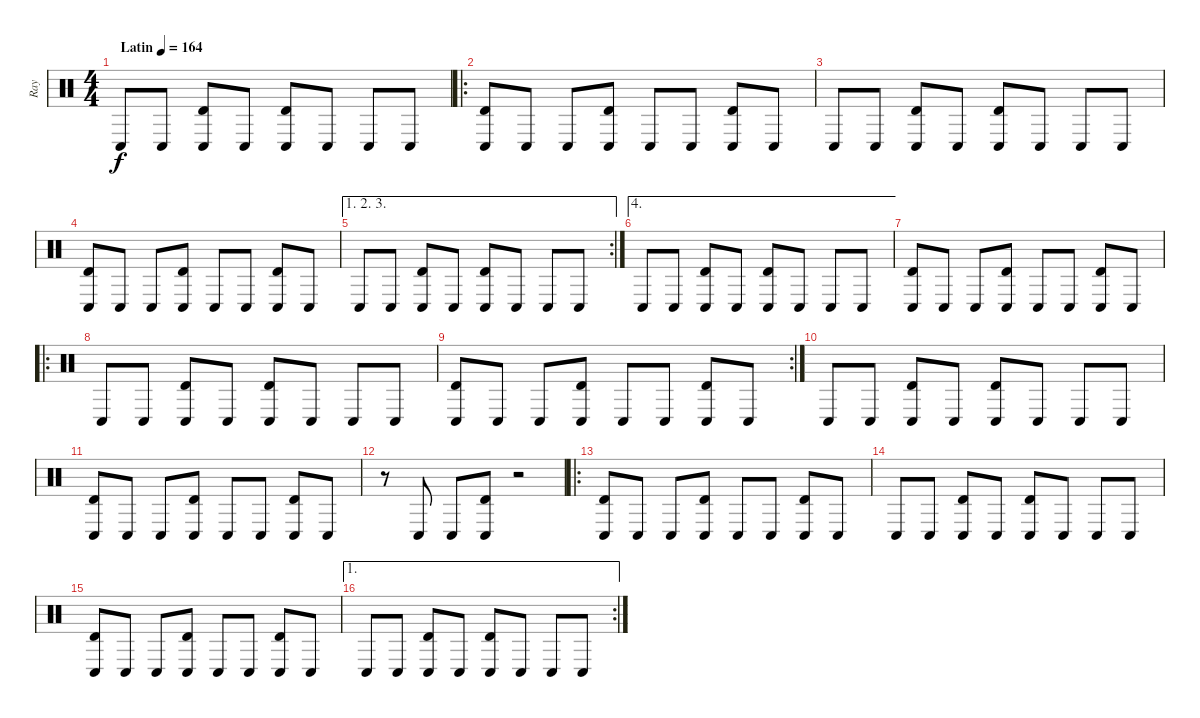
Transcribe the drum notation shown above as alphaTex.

\track ("Ray" "Ray") {instrument percussion}
\staff {score}
\articulation defaults
\ts (4 4)
\tempo (164 "Latin")
\clef neutral
\ks c "Conga low (hit)".8{dy f} "Conga low (hit)".8
("Timbale high (hit)" "Conga low (hit)").8 "Conga low (hit)".8 ("Timbale high (hit)" "Conga low (hit)").8 "Conga low (hit)".8 "Conga low (hit)".8 "Conga low (hit)".8 |
\ro
("Timbale high (hit)" "Conga low (hit)").8 "Conga low (hit)".8 "Conga low (hit)".8 ("Timbale high (hit)" "Conga low (hit)").8 "Conga low (hit)".8 "Conga low (hit)".8 ("Timbale high (hit)" "Conga low (hit)").8 "Conga low (hit)".8 |
"Conga low (hit)".8 "Conga low (hit)".8 ("Timbale high (hit)" "Conga low (hit)").8 "Conga low (hit)".8 ("Timbale high (hit)" "Conga low (hit)").8 "Conga low (hit)".8 "Conga low (hit)".8 "Conga low (hit)".8 |
("Timbale high (hit)" "Conga low (hit)").8 "Conga low (hit)".8 "Conga low (hit)".8 ("Timbale high (hit)" "Conga low (hit)").8 "Conga low (hit)".8 "Conga low (hit)".8 ("Timbale high (hit)" "Conga low (hit)").8 "Conga low (hit)".8 |
\ae (1 2 3)
\rc 2 "Conga low (hit)".8 "Conga low (hit)".8
("Timbale high (hit)" "Conga low (hit)").8 "Conga low (hit)".8 ("Timbale high (hit)" "Conga low (hit)").8 "Conga low (hit)".8 "Conga low (hit)".8 "Conga low (hit)".8 |
\ae 4 "Conga low (hit)".8 "Conga low (hit)".8
("Timbale high (hit)" "Conga low (hit)").8 "Conga low (hit)".8 ("Timbale high (hit)" "Conga low (hit)").8 "Conga low (hit)".8 "Conga low (hit)".8 "Conga low (hit)".8 |
("Timbale high (hit)" "Conga low (hit)").8 "Conga low (hit)".8 "Conga low (hit)".8 ("Timbale high (hit)" "Conga low (hit)").8 "Conga low (hit)".8 "Conga low (hit)".8 ("Timbale high (hit)" "Conga low (hit)").8 "Conga low (hit)".8 |
\ro "Conga low (hit)".8 "Conga low (hit)".8
("Timbale high (hit)" "Conga low (hit)").8 "Conga low (hit)".8 ("Timbale high (hit)" "Conga low (hit)").8 "Conga low (hit)".8 "Conga low (hit)".8 "Conga low (hit)".8 |
\rc 2
("Timbale high (hit)" "Conga low (hit)").8 "Conga low (hit)".8 "Conga low (hit)".8 ("Timbale high (hit)" "Conga low (hit)").8 "Conga low (hit)".8 "Conga low (hit)".8 ("Timbale high (hit)" "Conga low (hit)").8 "Conga low (hit)".8 |
"Conga low (hit)".8 "Conga low (hit)".8 ("Timbale high (hit)" "Conga low (hit)").8 "Conga low (hit)".8 ("Timbale high (hit)" "Conga low (hit)").8 "Conga low (hit)".8 "Conga low (hit)".8 "Conga low (hit)".8 |
("Timbale high (hit)" "Conga low (hit)").8 "Conga low (hit)".8 "Conga low (hit)".8 ("Timbale high (hit)" "Conga low (hit)").8 "Conga low (hit)".8 "Conga low (hit)".8 ("Timbale high (hit)" "Conga low (hit)").8 "Conga low (hit)".8 |
r.8 "Conga low (hit)".8 "Conga low (hit)".8 ("Timbale high (hit)" "Conga low (hit)").8 r.2 |
\ro
("Timbale high (hit)" "Conga low (hit)").8 "Conga low (hit)".8 "Conga low (hit)".8 ("Timbale high (hit)" "Conga low (hit)").8 "Conga low (hit)".8 "Conga low (hit)".8 ("Timbale high (hit)" "Conga low (hit)").8 "Conga low (hit)".8 |
"Conga low (hit)".8 "Conga low (hit)".8 ("Timbale high (hit)" "Conga low (hit)").8 "Conga low (hit)".8 ("Timbale high (hit)" "Conga low (hit)").8 "Conga low (hit)".8 "Conga low (hit)".8 "Conga low (hit)".8 |
("Timbale high (hit)" "Conga low (hit)").8 "Conga low (hit)".8 "Conga low (hit)".8 ("Timbale high (hit)" "Conga low (hit)").8 "Conga low (hit)".8 "Conga low (hit)".8 ("Timbale high (hit)" "Conga low (hit)").8 "Conga low (hit)".8 |
\ae 1
\rc 2 "Conga low (hit)".8 "Conga low (hit)".8
("Timbale high (hit)" "Conga low (hit)").8 "Conga low (hit)".8 ("Timbale high (hit)" "Conga low (hit)").8 "Conga low (hit)".8 "Conga low (hit)".8 "Conga low (hit)".8
